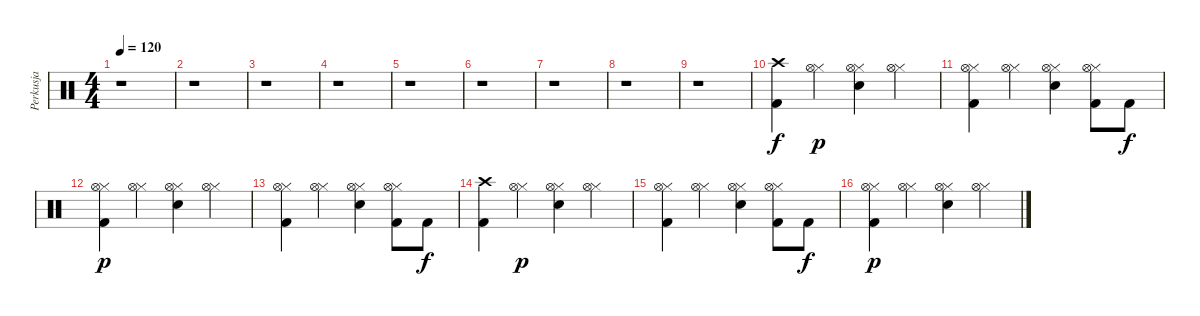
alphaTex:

\track ("Perkusja" "Perkusja") {instrument percussion}
\staff {score}
\articulation defaults
\ts (4 4)
\tempo 120
\clef neutral
\ks c
r.1{dy f} |
r.1 |
r.1 |
r.1 |
r.1 |
r.1 |
r.1 |
r.1 |
r.1 |
("Kick (hit) 2" "Crash high (hit)").4 ("Hi-Hat (closed)" "Hi-Hat (open)").4{dy p} ("Electric Snare (hit)" "Hi-Hat (closed)" "Hi-Hat (open)").4 ("Hi-Hat (closed)" "Hi-Hat (open)").4 |
("Kick (hit) 2" "Hi-Hat (closed)" "Hi-Hat (open)").4 ("Hi-Hat (closed)" "Hi-Hat (open)").4 ("Electric Snare (hit)" "Hi-Hat (closed)" "Hi-Hat (open)").4 ("Kick (hit) 2" "Hi-Hat (closed)" "Hi-Hat (open)").8 "Kick (hit) 2".8{dy f} |
("Kick (hit) 2" "Hi-Hat (closed)" "Hi-Hat (open)").4{dy p} ("Hi-Hat (closed)" "Hi-Hat (open)").4 ("Electric Snare (hit)" "Hi-Hat (closed)" "Hi-Hat (open)").4 ("Hi-Hat (closed)" "Hi-Hat (open)").4 |
("Kick (hit) 2" "Hi-Hat (closed)" "Hi-Hat (open)").4 ("Hi-Hat (closed)" "Hi-Hat (open)").4 ("Electric Snare (hit)" "Hi-Hat (closed)" "Hi-Hat (open)").4 ("Kick (hit) 2" "Hi-Hat (closed)" "Hi-Hat (open)").8 "Kick (hit) 2".8{dy f} |
("Kick (hit) 2" "Crash high (hit)").4 ("Hi-Hat (closed)" "Hi-Hat (open)").4{dy p} ("Electric Snare (hit)" "Hi-Hat (closed)" "Hi-Hat (open)").4 ("Hi-Hat (closed)" "Hi-Hat (open)").4 |
("Kick (hit) 2" "Hi-Hat (closed)" "Hi-Hat (open)").4 ("Hi-Hat (closed)" "Hi-Hat (open)").4 ("Electric Snare (hit)" "Hi-Hat (closed)" "Hi-Hat (open)").4 ("Kick (hit) 2" "Hi-Hat (closed)" "Hi-Hat (open)").8 "Kick (hit) 2".8{dy f} |
("Kick (hit) 2" "Hi-Hat (closed)" "Hi-Hat (open)").4{dy p} ("Hi-Hat (closed)" "Hi-Hat (open)").4 ("Electric Snare (hit)" "Hi-Hat (closed)" "Hi-Hat (open)").4 ("Hi-Hat (closed)" "Hi-Hat (open)").4
